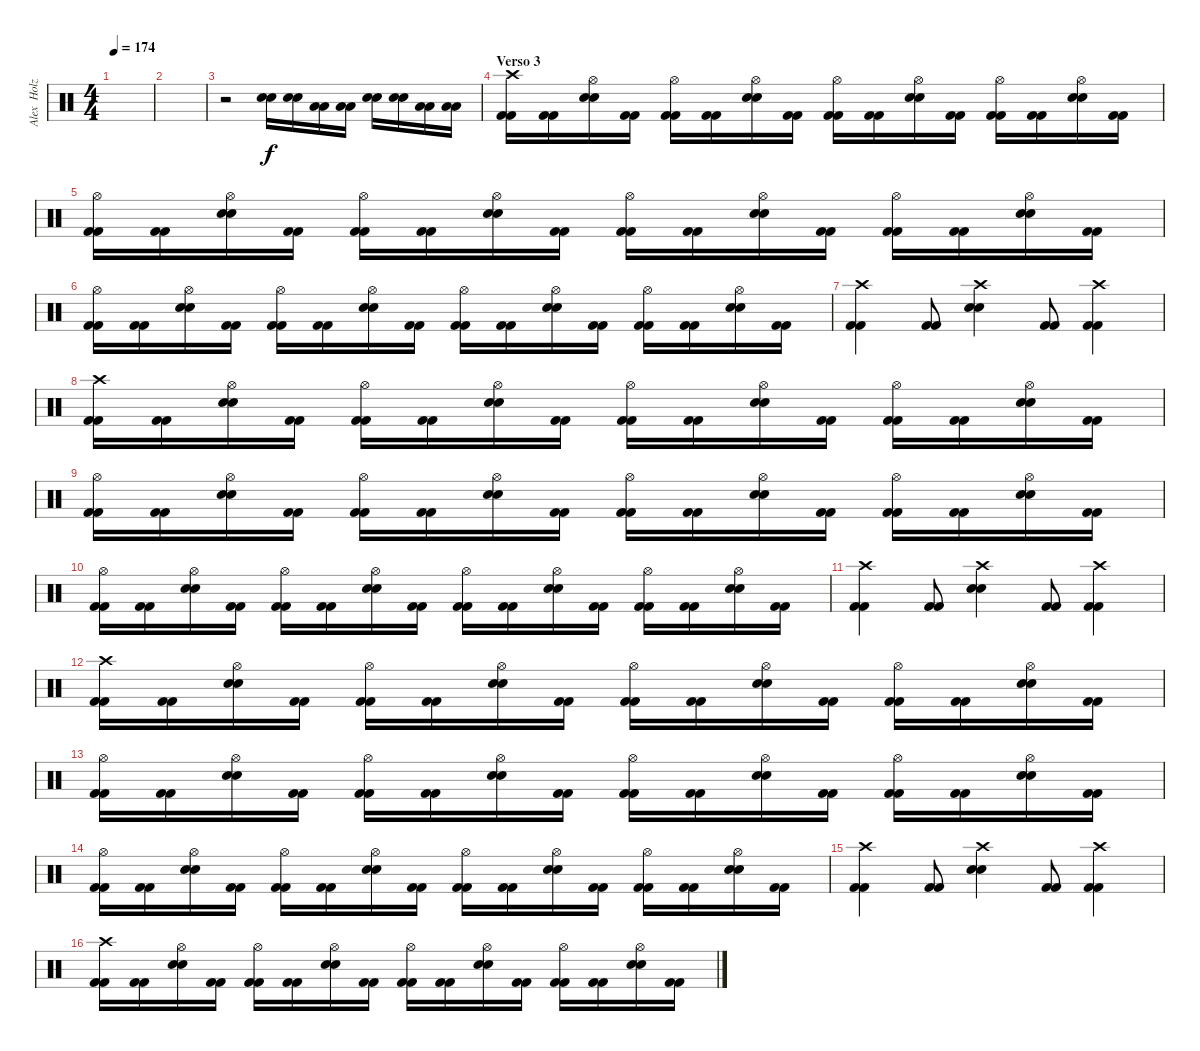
\track ("Alex  Holzwarth (Drums)" "Alex  Holz") {instrument percussion}
\staff {score}
\articulation defaults
\ts (4 4)
\tempo 174
\clef neutral
\ks c
|
|
r.2 ("Snare (hit) 2" "Snare (hit) 2").16 ("Snare (hit) 2" "Snare (hit) 2").16 ("Low Tom (hit)" "Low Tom (hit)").16 ("Low Tom (hit)" "Low Tom (hit)").16 ("Snare (hit) 2" "Snare (hit) 2").16 ("Snare (hit) 2" "Snare (hit) 2").16 ("Low Tom (hit)" "Low Tom (hit)").16 ("Low Tom (hit)" "Low Tom (hit)").16 |
\section ("" "Verso 3")
("Crash high (hit)" "Kick (hit) 2" "Kick (hit) 2").16 ("Kick (hit) 2" "Kick (hit) 2").16 ("Hi-Hat (open)" "Snare (hit) 2" "Snare (hit) 2").16 ("Kick (hit) 2" "Kick (hit) 2").16 ("Hi-Hat (open)" "Kick (hit) 2" "Kick (hit) 2").16 ("Kick (hit) 2" "Kick (hit) 2").16 ("Hi-Hat (open)" "Snare (hit) 2" "Snare (hit) 2").16 ("Kick (hit) 2" "Kick (hit) 2").16 ("Hi-Hat (open)" "Kick (hit) 2" "Kick (hit) 2").16 ("Kick (hit) 2" "Kick (hit) 2").16 ("Hi-Hat (open)" "Snare (hit) 2" "Snare (hit) 2").16 ("Kick (hit) 2" "Kick (hit) 2").16 ("Hi-Hat (open)" "Kick (hit) 2" "Kick (hit) 2").16 ("Kick (hit) 2" "Kick (hit) 2").16 ("Hi-Hat (open)" "Snare (hit) 2" "Snare (hit) 2").16 ("Kick (hit) 2" "Kick (hit) 2").16 |
("Hi-Hat (open)" "Kick (hit) 2" "Kick (hit) 2").16 ("Kick (hit) 2" "Kick (hit) 2").16 ("Hi-Hat (open)" "Snare (hit) 2" "Snare (hit) 2").16 ("Kick (hit) 2" "Kick (hit) 2").16 ("Hi-Hat (open)" "Kick (hit) 2" "Kick (hit) 2").16 ("Kick (hit) 2" "Kick (hit) 2").16 ("Hi-Hat (open)" "Snare (hit) 2" "Snare (hit) 2").16 ("Kick (hit) 2" "Kick (hit) 2").16 ("Hi-Hat (open)" "Kick (hit) 2" "Kick (hit) 2").16 ("Kick (hit) 2" "Kick (hit) 2").16 ("Hi-Hat (open)" "Snare (hit) 2" "Snare (hit) 2").16 ("Kick (hit) 2" "Kick (hit) 2").16 ("Hi-Hat (open)" "Kick (hit) 2" "Kick (hit) 2").16 ("Kick (hit) 2" "Kick (hit) 2").16 ("Hi-Hat (open)" "Snare (hit) 2" "Snare (hit) 2").16 ("Kick (hit) 2" "Kick (hit) 2").16 |
("Hi-Hat (open)" "Kick (hit) 2" "Kick (hit) 2").16 ("Kick (hit) 2" "Kick (hit) 2").16 ("Hi-Hat (open)" "Snare (hit) 2" "Snare (hit) 2").16 ("Kick (hit) 2" "Kick (hit) 2").16 ("Hi-Hat (open)" "Kick (hit) 2" "Kick (hit) 2").16 ("Kick (hit) 2" "Kick (hit) 2").16 ("Hi-Hat (open)" "Snare (hit) 2" "Snare (hit) 2").16 ("Kick (hit) 2" "Kick (hit) 2").16 ("Hi-Hat (open)" "Kick (hit) 2" "Kick (hit) 2").16 ("Kick (hit) 2" "Kick (hit) 2").16 ("Hi-Hat (open)" "Snare (hit) 2" "Snare (hit) 2").16 ("Kick (hit) 2" "Kick (hit) 2").16 ("Hi-Hat (open)" "Kick (hit) 2" "Kick (hit) 2").16 ("Kick (hit) 2" "Kick (hit) 2").16 ("Hi-Hat (open)" "Snare (hit) 2" "Snare (hit) 2").16 ("Kick (hit) 2" "Kick (hit) 2").16 |
("Crash high (hit)" "Kick (hit) 2" "Kick (hit) 2").4 ("Kick (hit) 2" "Kick (hit) 2").8 ("Crash high (hit)" "Snare (hit) 2" "Snare (hit) 2").4 ("Kick (hit) 2" "Kick (hit) 2").8 ("Crash high (hit)" "Kick (hit) 2" "Kick (hit) 2").4 |
("Crash high (hit)" "Kick (hit) 2" "Kick (hit) 2").16 ("Kick (hit) 2" "Kick (hit) 2").16 ("Hi-Hat (open)" "Snare (hit) 2" "Snare (hit) 2").16 ("Kick (hit) 2" "Kick (hit) 2").16 ("Hi-Hat (open)" "Kick (hit) 2" "Kick (hit) 2").16 ("Kick (hit) 2" "Kick (hit) 2").16 ("Hi-Hat (open)" "Snare (hit) 2" "Snare (hit) 2").16 ("Kick (hit) 2" "Kick (hit) 2").16 ("Hi-Hat (open)" "Kick (hit) 2" "Kick (hit) 2").16 ("Kick (hit) 2" "Kick (hit) 2").16 ("Hi-Hat (open)" "Snare (hit) 2" "Snare (hit) 2").16 ("Kick (hit) 2" "Kick (hit) 2").16 ("Hi-Hat (open)" "Kick (hit) 2" "Kick (hit) 2").16 ("Kick (hit) 2" "Kick (hit) 2").16 ("Hi-Hat (open)" "Snare (hit) 2" "Snare (hit) 2").16 ("Kick (hit) 2" "Kick (hit) 2").16 |
("Hi-Hat (open)" "Kick (hit) 2" "Kick (hit) 2").16 ("Kick (hit) 2" "Kick (hit) 2").16 ("Hi-Hat (open)" "Snare (hit) 2" "Snare (hit) 2").16 ("Kick (hit) 2" "Kick (hit) 2").16 ("Hi-Hat (open)" "Kick (hit) 2" "Kick (hit) 2").16 ("Kick (hit) 2" "Kick (hit) 2").16 ("Hi-Hat (open)" "Snare (hit) 2" "Snare (hit) 2").16 ("Kick (hit) 2" "Kick (hit) 2").16 ("Hi-Hat (open)" "Kick (hit) 2" "Kick (hit) 2").16 ("Kick (hit) 2" "Kick (hit) 2").16 ("Hi-Hat (open)" "Snare (hit) 2" "Snare (hit) 2").16 ("Kick (hit) 2" "Kick (hit) 2").16 ("Hi-Hat (open)" "Kick (hit) 2" "Kick (hit) 2").16 ("Kick (hit) 2" "Kick (hit) 2").16 ("Hi-Hat (open)" "Snare (hit) 2" "Snare (hit) 2").16 ("Kick (hit) 2" "Kick (hit) 2").16 |
("Hi-Hat (open)" "Kick (hit) 2" "Kick (hit) 2").16 ("Kick (hit) 2" "Kick (hit) 2").16 ("Hi-Hat (open)" "Snare (hit) 2" "Snare (hit) 2").16 ("Kick (hit) 2" "Kick (hit) 2").16 ("Hi-Hat (open)" "Kick (hit) 2" "Kick (hit) 2").16 ("Kick (hit) 2" "Kick (hit) 2").16 ("Hi-Hat (open)" "Snare (hit) 2" "Snare (hit) 2").16 ("Kick (hit) 2" "Kick (hit) 2").16 ("Hi-Hat (open)" "Kick (hit) 2" "Kick (hit) 2").16 ("Kick (hit) 2" "Kick (hit) 2").16 ("Hi-Hat (open)" "Snare (hit) 2" "Snare (hit) 2").16 ("Kick (hit) 2" "Kick (hit) 2").16 ("Hi-Hat (open)" "Kick (hit) 2" "Kick (hit) 2").16 ("Kick (hit) 2" "Kick (hit) 2").16 ("Hi-Hat (open)" "Snare (hit) 2" "Snare (hit) 2").16 ("Kick (hit) 2" "Kick (hit) 2").16 |
("Crash high (hit)" "Kick (hit) 2" "Kick (hit) 2").4 ("Kick (hit) 2" "Kick (hit) 2").8 ("Crash high (hit)" "Snare (hit) 2" "Snare (hit) 2").4 ("Kick (hit) 2" "Kick (hit) 2").8 ("Crash high (hit)" "Kick (hit) 2" "Kick (hit) 2").4 |
("Crash high (hit)" "Kick (hit) 2" "Kick (hit) 2").16 ("Kick (hit) 2" "Kick (hit) 2").16 ("Hi-Hat (open)" "Snare (hit) 2" "Snare (hit) 2").16 ("Kick (hit) 2" "Kick (hit) 2").16 ("Hi-Hat (open)" "Kick (hit) 2" "Kick (hit) 2").16 ("Kick (hit) 2" "Kick (hit) 2").16 ("Hi-Hat (open)" "Snare (hit) 2" "Snare (hit) 2").16 ("Kick (hit) 2" "Kick (hit) 2").16 ("Hi-Hat (open)" "Kick (hit) 2" "Kick (hit) 2").16 ("Kick (hit) 2" "Kick (hit) 2").16 ("Hi-Hat (open)" "Snare (hit) 2" "Snare (hit) 2").16 ("Kick (hit) 2" "Kick (hit) 2").16 ("Hi-Hat (open)" "Kick (hit) 2" "Kick (hit) 2").16 ("Kick (hit) 2" "Kick (hit) 2").16 ("Hi-Hat (open)" "Snare (hit) 2" "Snare (hit) 2").16 ("Kick (hit) 2" "Kick (hit) 2").16 |
("Hi-Hat (open)" "Kick (hit) 2" "Kick (hit) 2").16 ("Kick (hit) 2" "Kick (hit) 2").16 ("Hi-Hat (open)" "Snare (hit) 2" "Snare (hit) 2").16 ("Kick (hit) 2" "Kick (hit) 2").16 ("Hi-Hat (open)" "Kick (hit) 2" "Kick (hit) 2").16 ("Kick (hit) 2" "Kick (hit) 2").16 ("Hi-Hat (open)" "Snare (hit) 2" "Snare (hit) 2").16 ("Kick (hit) 2" "Kick (hit) 2").16 ("Hi-Hat (open)" "Kick (hit) 2" "Kick (hit) 2").16 ("Kick (hit) 2" "Kick (hit) 2").16 ("Hi-Hat (open)" "Snare (hit) 2" "Snare (hit) 2").16 ("Kick (hit) 2" "Kick (hit) 2").16 ("Hi-Hat (open)" "Kick (hit) 2" "Kick (hit) 2").16 ("Kick (hit) 2" "Kick (hit) 2").16 ("Hi-Hat (open)" "Snare (hit) 2" "Snare (hit) 2").16 ("Kick (hit) 2" "Kick (hit) 2").16 |
("Hi-Hat (open)" "Kick (hit) 2" "Kick (hit) 2").16 ("Kick (hit) 2" "Kick (hit) 2").16 ("Hi-Hat (open)" "Snare (hit) 2" "Snare (hit) 2").16 ("Kick (hit) 2" "Kick (hit) 2").16 ("Hi-Hat (open)" "Kick (hit) 2" "Kick (hit) 2").16 ("Kick (hit) 2" "Kick (hit) 2").16 ("Hi-Hat (open)" "Snare (hit) 2" "Snare (hit) 2").16 ("Kick (hit) 2" "Kick (hit) 2").16 ("Hi-Hat (open)" "Kick (hit) 2" "Kick (hit) 2").16 ("Kick (hit) 2" "Kick (hit) 2").16 ("Hi-Hat (open)" "Snare (hit) 2" "Snare (hit) 2").16 ("Kick (hit) 2" "Kick (hit) 2").16 ("Hi-Hat (open)" "Kick (hit) 2" "Kick (hit) 2").16 ("Kick (hit) 2" "Kick (hit) 2").16 ("Hi-Hat (open)" "Snare (hit) 2" "Snare (hit) 2").16 ("Kick (hit) 2" "Kick (hit) 2").16 |
("Crash high (hit)" "Kick (hit) 2" "Kick (hit) 2").4 ("Kick (hit) 2" "Kick (hit) 2").8 ("Crash high (hit)" "Snare (hit) 2" "Snare (hit) 2").4 ("Kick (hit) 2" "Kick (hit) 2").8 ("Crash high (hit)" "Kick (hit) 2" "Kick (hit) 2").4 |
("Crash high (hit)" "Kick (hit) 2" "Kick (hit) 2").16 ("Kick (hit) 2" "Kick (hit) 2").16 ("Hi-Hat (open)" "Snare (hit) 2" "Snare (hit) 2").16 ("Kick (hit) 2" "Kick (hit) 2").16 ("Hi-Hat (open)" "Kick (hit) 2" "Kick (hit) 2").16 ("Kick (hit) 2" "Kick (hit) 2").16 ("Hi-Hat (open)" "Snare (hit) 2" "Snare (hit) 2").16 ("Kick (hit) 2" "Kick (hit) 2").16 ("Hi-Hat (open)" "Kick (hit) 2" "Kick (hit) 2").16 ("Kick (hit) 2" "Kick (hit) 2").16 ("Hi-Hat (open)" "Snare (hit) 2" "Snare (hit) 2").16 ("Kick (hit) 2" "Kick (hit) 2").16 ("Hi-Hat (open)" "Kick (hit) 2" "Kick (hit) 2").16 ("Kick (hit) 2" "Kick (hit) 2").16 ("Hi-Hat (open)" "Snare (hit) 2" "Snare (hit) 2").16 ("Kick (hit) 2" "Kick (hit) 2").16
